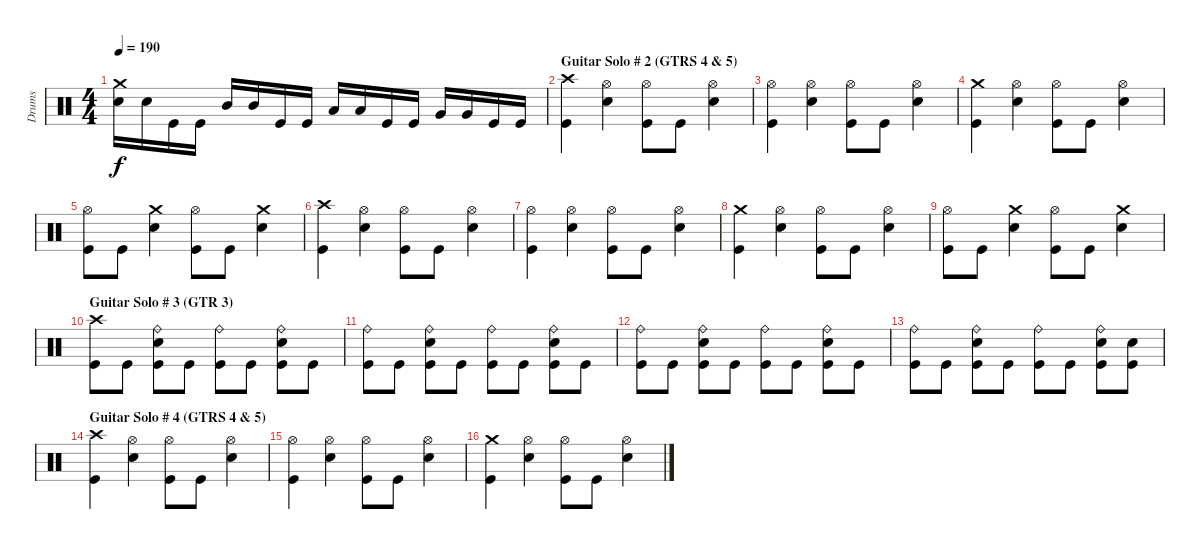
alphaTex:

\track ("Drums" "Drums") {instrument percussion}
\staff {score}
\articulation defaults
\ts (4 4)
\tempo 190
\clef neutral
\ks c
("Crash medium (hit)" "Electric Snare (hit)").16{dy f} "Electric Snare (hit)".16 "Kick (hit)".16 "Kick (hit)".16 "Mid Tom (hit)".16 "Mid Tom (hit)".16 "Kick (hit)".16 "Kick (hit)".16 "Low Tom (hit)".16 "Low Tom (hit)".16 "Kick (hit)".16 "Kick (hit)".16 "Very Low Tom (hit)".16 "Very Low Tom (hit)".16 "Kick (hit)".16 "Kick (hit)".16 |
\section ("" "Guitar Solo # 2 (GTRS 4 & 5)")
("Crash high (hit)" "Kick (hit)").4 ("Hi-Hat (open)" "Electric Snare (hit)").4 ("Hi-Hat (open)" "Kick (hit)").8 "Kick (hit)".8 ("Hi-Hat (open)" "Electric Snare (hit)").4 |
("Hi-Hat (open)" "Kick (hit)").4 ("Hi-Hat (open)" "Electric Snare (hit)").4 ("Hi-Hat (open)" "Kick (hit)").8 "Kick (hit)".8 ("Hi-Hat (open)" "Electric Snare (hit)").4 |
("Crash medium (hit)" "Kick (hit)").4 ("Hi-Hat (open)" "Electric Snare (hit)").4 ("Hi-Hat (open)" "Kick (hit)").8 "Kick (hit)".8 ("Hi-Hat (open)" "Electric Snare (hit)").4 |
("Hi-Hat (open)" "Kick (hit)").8 "Kick (hit)".8 ("Crash medium (hit)" "Electric Snare (hit)").4 ("Hi-Hat (open)" "Kick (hit)").8 "Kick (hit)".8 ("Crash medium (hit)" "Electric Snare (hit)").4 |
("Crash high (hit)" "Kick (hit)").4 ("Hi-Hat (open)" "Electric Snare (hit)").4 ("Hi-Hat (open)" "Kick (hit)").8 "Kick (hit)".8 ("Hi-Hat (open)" "Electric Snare (hit)").4 |
("Hi-Hat (open)" "Kick (hit)").4 ("Hi-Hat (open)" "Electric Snare (hit)").4 ("Hi-Hat (open)" "Kick (hit)").8 "Kick (hit)".8 ("Hi-Hat (open)" "Electric Snare (hit)").4 |
("Crash medium (hit)" "Kick (hit)").4 ("Hi-Hat (open)" "Electric Snare (hit)").4 ("Hi-Hat (open)" "Kick (hit)").8 "Kick (hit)".8 ("Hi-Hat (open)" "Electric Snare (hit)").4 |
("Hi-Hat (open)" "Kick (hit)").8 "Kick (hit)".8 ("Crash medium (hit)" "Electric Snare (hit)").4 ("Hi-Hat (open)" "Kick (hit)").8 "Kick (hit)".8 ("Crash medium (hit)" "Electric Snare (hit)").4 |
\section ("" "Guitar Solo # 3 (GTR 3)")
("Crash high (hit)" "Kick (hit)").8 "Kick (hit)".8 ("Ride (bell)" "Electric Snare (hit)" "Kick (hit)").8 "Kick (hit)".8 ("Ride (bell)" "Kick (hit)").8 "Kick (hit)".8 ("Ride (bell)" "Electric Snare (hit)" "Kick (hit)").8 "Kick (hit)".8 |
("Ride (bell)" "Kick (hit)").8 "Kick (hit)".8 ("Ride (bell)" "Electric Snare (hit)" "Kick (hit)").8 "Kick (hit)".8 ("Ride (bell)" "Kick (hit)").8 "Kick (hit)".8 ("Ride (bell)" "Electric Snare (hit)" "Kick (hit)").8 "Kick (hit)".8 |
("Ride (bell)" "Kick (hit)").8 "Kick (hit)".8 ("Ride (bell)" "Electric Snare (hit)" "Kick (hit)").8 "Kick (hit)".8 ("Ride (bell)" "Kick (hit)").8 "Kick (hit)".8 ("Ride (bell)" "Electric Snare (hit)" "Kick (hit)").8 "Kick (hit)".8 |
("Ride (bell)" "Kick (hit)").8 "Kick (hit)".8 ("Ride (bell)" "Electric Snare (hit)" "Kick (hit)").8 "Kick (hit)".8 ("Ride (bell)" "Kick (hit)").8 "Kick (hit)".8 ("Ride (bell)" "Electric Snare (hit)" "Kick (hit)").8 ("Electric Snare (hit)" "Kick (hit)").8 |
\section ("" "Guitar Solo # 4 (GTRS 4 & 5)")
("Crash high (hit)" "Kick (hit)").4 ("Hi-Hat (open)" "Electric Snare (hit)").4 ("Hi-Hat (open)" "Kick (hit)").8 "Kick (hit)".8 ("Hi-Hat (open)" "Electric Snare (hit)").4 |
("Hi-Hat (open)" "Kick (hit)").4 ("Hi-Hat (open)" "Electric Snare (hit)").4 ("Hi-Hat (open)" "Kick (hit)").8 "Kick (hit)".8 ("Hi-Hat (open)" "Electric Snare (hit)").4 |
("Crash medium (hit)" "Kick (hit)").4 ("Hi-Hat (open)" "Electric Snare (hit)").4 ("Hi-Hat (open)" "Kick (hit)").8 "Kick (hit)".8 ("Hi-Hat (open)" "Electric Snare (hit)").4
